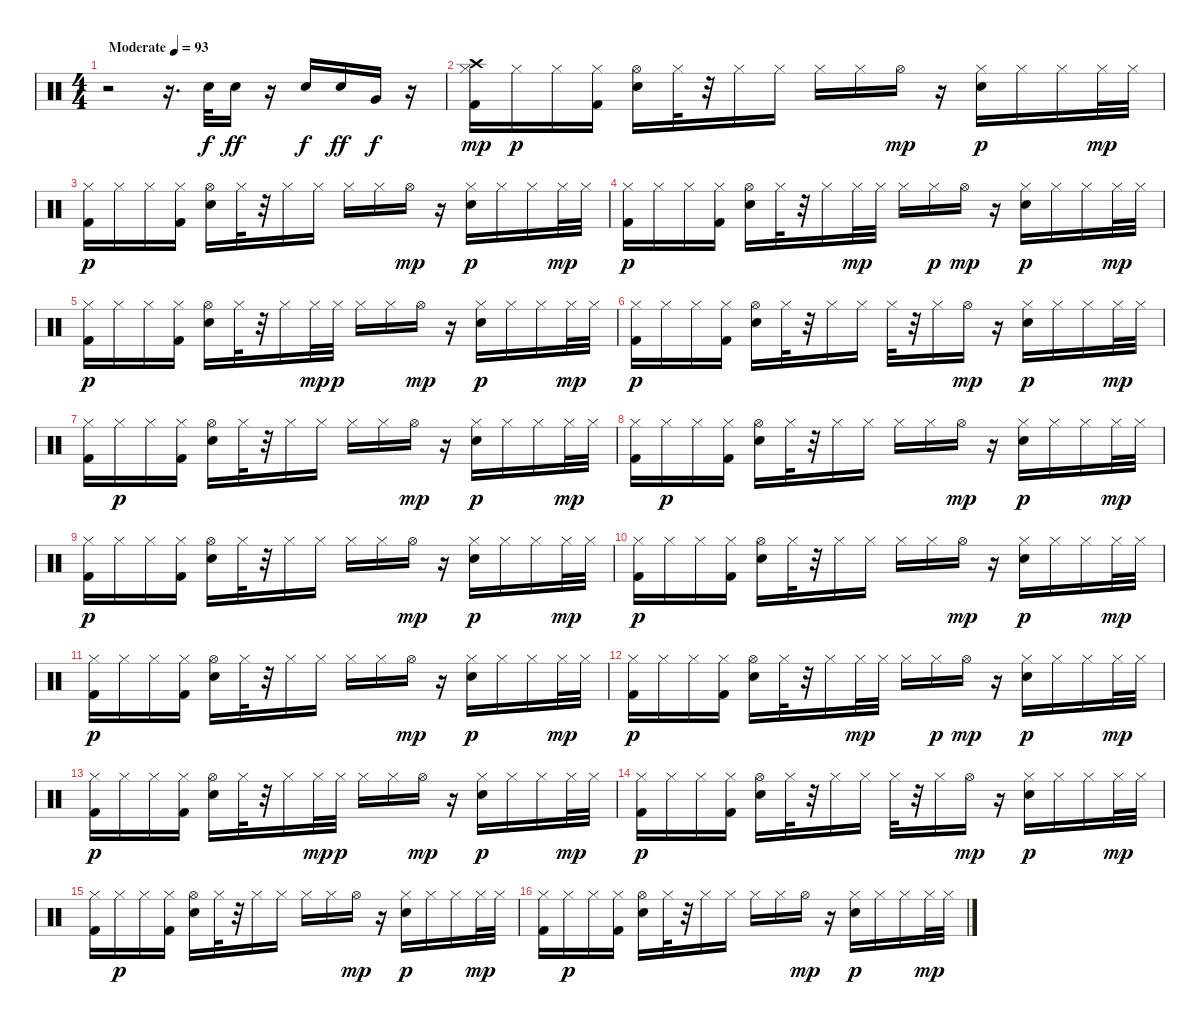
\track "" {instrument percussion}
\staff {score}
\articulation defaults
\ts (4 4)
\tempo (93 "Moderate")
\clef neutral
\ks c
r.2{dy f} r.16{d} "Electric Snare (hit)".32 "Electric Snare (hit)".16{dy ff} r.16 "Electric Snare (hit)".16{dy f} "Electric Snare (hit)".16{dy ff} "Very Low Tom (hit)".16{dy f} r.16 |
("Hi-Hat (closed)" "Kick (hit) 2" "Crash high (hit)").16{dy mp} "Hi-Hat (closed)".16{dy p} "Hi-Hat (closed)".16 ("Hi-Hat (closed)" "Kick (hit) 2").16 ("Hi-Hat (open)" "Snare (hit) 2").16 "Hi-Hat (closed)".32 r.32 "Hi-Hat (closed)".16 "Hi-Hat (closed)".16 "Hi-Hat (closed)".16 "Hi-Hat (closed)".16 "Hi-Hat (open)".16{dy mp} r.16 ("Hi-Hat (closed)" "Snare (hit) 2").16{dy p} "Hi-Hat (closed)".16 "Hi-Hat (closed)".16 "Hi-Hat (closed)".32{dy mp} "Hi-Hat (closed)".32 |
("Hi-Hat (closed)" "Kick (hit) 2").16{dy p} "Hi-Hat (closed)".16 "Hi-Hat (closed)".16 ("Hi-Hat (closed)" "Kick (hit) 2").16 ("Hi-Hat (open)" "Snare (hit) 2").16 "Hi-Hat (closed)".32 r.32 "Hi-Hat (closed)".16 "Hi-Hat (closed)".16 "Hi-Hat (closed)".16 "Hi-Hat (closed)".16 "Hi-Hat (open)".16{dy mp} r.16 ("Hi-Hat (closed)" "Snare (hit) 2").16{dy p} "Hi-Hat (closed)".16 "Hi-Hat (closed)".16 "Hi-Hat (closed)".32{dy mp} "Hi-Hat (closed)".32 |
("Hi-Hat (closed)" "Kick (hit) 2").16{dy p} "Hi-Hat (closed)".16 "Hi-Hat (closed)".16 ("Hi-Hat (closed)" "Kick (hit) 2").16 ("Hi-Hat (open)" "Snare (hit) 2").16 "Hi-Hat (closed)".32 r.32 "Hi-Hat (closed)".16 "Hi-Hat (closed)".32{dy mp} "Hi-Hat (closed)".32 "Hi-Hat (closed)".16 "Hi-Hat (closed)".16{dy p} "Hi-Hat (open)".16{dy mp} r.16 ("Hi-Hat (closed)" "Snare (hit) 2").16{dy p} "Hi-Hat (closed)".16 "Hi-Hat (closed)".16 "Hi-Hat (closed)".32{dy mp} "Hi-Hat (closed)".32 |
("Hi-Hat (closed)" "Kick (hit) 2").16{dy p} "Hi-Hat (closed)".16 "Hi-Hat (closed)".16 ("Hi-Hat (closed)" "Kick (hit) 2").16 ("Hi-Hat (open)" "Snare (hit) 2").16 "Hi-Hat (closed)".32 r.32 "Hi-Hat (closed)".16 "Hi-Hat (closed)".32{dy mp} "Hi-Hat (closed)".32{dy p} "Hi-Hat (closed)".16 "Hi-Hat (closed)".16 "Hi-Hat (open)".16{dy mp} r.16 ("Hi-Hat (closed)" "Snare (hit) 2").16{dy p} "Hi-Hat (closed)".16 "Hi-Hat (closed)".16 "Hi-Hat (closed)".32{dy mp} "Hi-Hat (closed)".32 |
("Hi-Hat (closed)" "Kick (hit) 2").16{dy p} "Hi-Hat (closed)".16 "Hi-Hat (closed)".16 ("Hi-Hat (closed)" "Kick (hit) 2").16 ("Hi-Hat (open)" "Snare (hit) 2").16 "Hi-Hat (closed)".32 r.32 "Hi-Hat (closed)".16 "Hi-Hat (closed)".16 "Hi-Hat (closed)".32 r.32 "Hi-Hat (closed)".16 "Hi-Hat (open)".16{dy mp} r.16 ("Hi-Hat (closed)" "Snare (hit) 2").16{dy p} "Hi-Hat (closed)".16 "Hi-Hat (closed)".16 "Hi-Hat (closed)".32{dy mp} "Hi-Hat (closed)".32 |
("Hi-Hat (closed)" "Kick (hit) 2").16 "Hi-Hat (closed)".16{dy p} "Hi-Hat (closed)".16 ("Hi-Hat (closed)" "Kick (hit) 2").16 ("Hi-Hat (open)" "Snare (hit) 2").16 "Hi-Hat (closed)".32 r.32 "Hi-Hat (closed)".16 "Hi-Hat (closed)".16 "Hi-Hat (closed)".16 "Hi-Hat (closed)".16 "Hi-Hat (open)".16{dy mp} r.16 ("Hi-Hat (closed)" "Snare (hit) 2").16{dy p} "Hi-Hat (closed)".16 "Hi-Hat (closed)".16 "Hi-Hat (closed)".32{dy mp} "Hi-Hat (closed)".32 |
("Hi-Hat (closed)" "Kick (hit) 2").16 "Hi-Hat (closed)".16{dy p} "Hi-Hat (closed)".16 ("Hi-Hat (closed)" "Kick (hit) 2").16 ("Hi-Hat (open)" "Snare (hit) 2").16 "Hi-Hat (closed)".32 r.32 "Hi-Hat (closed)".16 "Hi-Hat (closed)".16 "Hi-Hat (closed)".16 "Hi-Hat (closed)".16 "Hi-Hat (open)".16{dy mp} r.16 ("Hi-Hat (closed)" "Snare (hit) 2").16{dy p} "Hi-Hat (closed)".16 "Hi-Hat (closed)".16 "Hi-Hat (closed)".32{dy mp} "Hi-Hat (closed)".32 |
("Hi-Hat (closed)" "Kick (hit) 2").16{dy p} "Hi-Hat (closed)".16 "Hi-Hat (closed)".16 ("Hi-Hat (closed)" "Kick (hit) 2").16 ("Hi-Hat (open)" "Snare (hit) 2").16 "Hi-Hat (closed)".32 r.32 "Hi-Hat (closed)".16 "Hi-Hat (closed)".16 "Hi-Hat (closed)".16 "Hi-Hat (closed)".16 "Hi-Hat (open)".16{dy mp} r.16 ("Hi-Hat (closed)" "Snare (hit) 2").16{dy p} "Hi-Hat (closed)".16 "Hi-Hat (closed)".16 "Hi-Hat (closed)".32{dy mp} "Hi-Hat (closed)".32 |
("Hi-Hat (closed)" "Kick (hit) 2").16{dy p} "Hi-Hat (closed)".16 "Hi-Hat (closed)".16 ("Hi-Hat (closed)" "Kick (hit) 2").16 ("Hi-Hat (open)" "Snare (hit) 2").16 "Hi-Hat (closed)".32 r.32 "Hi-Hat (closed)".16 "Hi-Hat (closed)".16 "Hi-Hat (closed)".16 "Hi-Hat (closed)".16 "Hi-Hat (open)".16{dy mp} r.16 ("Hi-Hat (closed)" "Snare (hit) 2").16{dy p} "Hi-Hat (closed)".16 "Hi-Hat (closed)".16 "Hi-Hat (closed)".32{dy mp} "Hi-Hat (closed)".32 |
("Hi-Hat (closed)" "Kick (hit) 2").16{dy p} "Hi-Hat (closed)".16 "Hi-Hat (closed)".16 ("Hi-Hat (closed)" "Kick (hit) 2").16 ("Hi-Hat (open)" "Snare (hit) 2").16 "Hi-Hat (closed)".32 r.32 "Hi-Hat (closed)".16 "Hi-Hat (closed)".16 "Hi-Hat (closed)".16 "Hi-Hat (closed)".16 "Hi-Hat (open)".16{dy mp} r.16 ("Hi-Hat (closed)" "Snare (hit) 2").16{dy p} "Hi-Hat (closed)".16 "Hi-Hat (closed)".16 "Hi-Hat (closed)".32{dy mp} "Hi-Hat (closed)".32 |
("Hi-Hat (closed)" "Kick (hit) 2").16{dy p} "Hi-Hat (closed)".16 "Hi-Hat (closed)".16 ("Hi-Hat (closed)" "Kick (hit) 2").16 ("Hi-Hat (open)" "Snare (hit) 2").16 "Hi-Hat (closed)".32 r.32 "Hi-Hat (closed)".16 "Hi-Hat (closed)".32{dy mp} "Hi-Hat (closed)".32 "Hi-Hat (closed)".16 "Hi-Hat (closed)".16{dy p} "Hi-Hat (open)".16{dy mp} r.16 ("Hi-Hat (closed)" "Snare (hit) 2").16{dy p} "Hi-Hat (closed)".16 "Hi-Hat (closed)".16 "Hi-Hat (closed)".32{dy mp} "Hi-Hat (closed)".32 |
("Hi-Hat (closed)" "Kick (hit) 2").16{dy p} "Hi-Hat (closed)".16 "Hi-Hat (closed)".16 ("Hi-Hat (closed)" "Kick (hit) 2").16 ("Hi-Hat (open)" "Snare (hit) 2").16 "Hi-Hat (closed)".32 r.32 "Hi-Hat (closed)".16 "Hi-Hat (closed)".32{dy mp} "Hi-Hat (closed)".32{dy p} "Hi-Hat (closed)".16 "Hi-Hat (closed)".16 "Hi-Hat (open)".16{dy mp} r.16 ("Hi-Hat (closed)" "Snare (hit) 2").16{dy p} "Hi-Hat (closed)".16 "Hi-Hat (closed)".16 "Hi-Hat (closed)".32{dy mp} "Hi-Hat (closed)".32 |
("Hi-Hat (closed)" "Kick (hit) 2").16{dy p} "Hi-Hat (closed)".16 "Hi-Hat (closed)".16 ("Hi-Hat (closed)" "Kick (hit) 2").16 ("Hi-Hat (open)" "Snare (hit) 2").16 "Hi-Hat (closed)".32 r.32 "Hi-Hat (closed)".16 "Hi-Hat (closed)".16 "Hi-Hat (closed)".32 r.32 "Hi-Hat (closed)".16 "Hi-Hat (open)".16{dy mp} r.16 ("Hi-Hat (closed)" "Snare (hit) 2").16{dy p} "Hi-Hat (closed)".16 "Hi-Hat (closed)".16 "Hi-Hat (closed)".32{dy mp} "Hi-Hat (closed)".32 |
("Hi-Hat (closed)" "Kick (hit) 2").16 "Hi-Hat (closed)".16{dy p} "Hi-Hat (closed)".16 ("Hi-Hat (closed)" "Kick (hit) 2").16 ("Hi-Hat (open)" "Snare (hit) 2").16 "Hi-Hat (closed)".32 r.32 "Hi-Hat (closed)".16 "Hi-Hat (closed)".16 "Hi-Hat (closed)".16 "Hi-Hat (closed)".16 "Hi-Hat (open)".16{dy mp} r.16 ("Hi-Hat (closed)" "Snare (hit) 2").16{dy p} "Hi-Hat (closed)".16 "Hi-Hat (closed)".16 "Hi-Hat (closed)".32{dy mp} "Hi-Hat (closed)".32 |
("Hi-Hat (closed)" "Kick (hit) 2").16 "Hi-Hat (closed)".16{dy p} "Hi-Hat (closed)".16 ("Hi-Hat (closed)" "Kick (hit) 2").16 ("Hi-Hat (open)" "Snare (hit) 2").16 "Hi-Hat (closed)".32 r.32 "Hi-Hat (closed)".16 "Hi-Hat (closed)".16 "Hi-Hat (closed)".16 "Hi-Hat (closed)".16 "Hi-Hat (open)".16{dy mp} r.16 ("Hi-Hat (closed)" "Snare (hit) 2").16{dy p} "Hi-Hat (closed)".16 "Hi-Hat (closed)".16 "Hi-Hat (closed)".32{dy mp} "Hi-Hat (closed)".32
